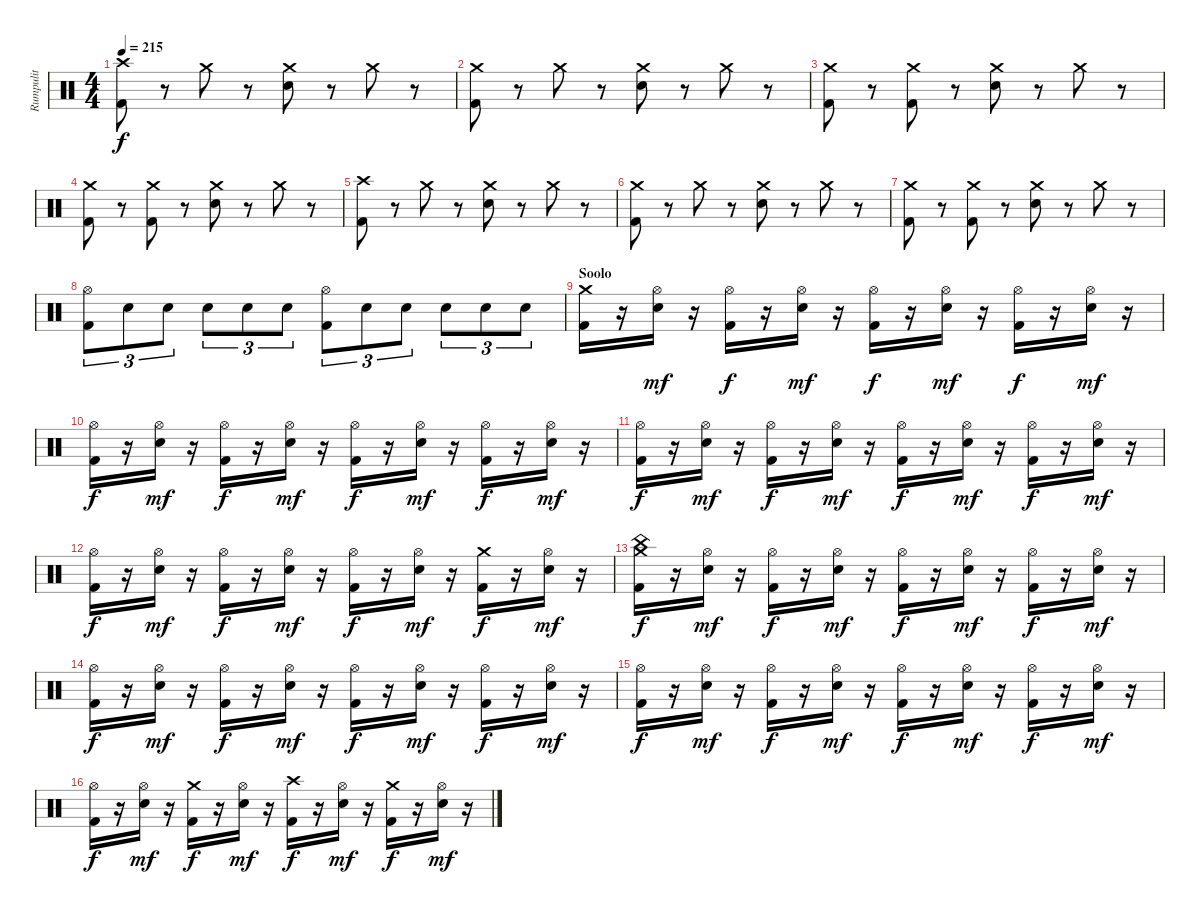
\track ("Rumpulit" "Rumpulit") {instrument percussion}
\staff {score}
\articulation defaults
\ts (4 4)
\tempo 215
\clef neutral
\ks c
("Crash high (hit)" "Kick (hit) 2").8{dy f} r.8 "Crash medium (hit)".8 r.8 ("Crash medium (hit)" "Electric Snare (hit)").8 r.8 "Crash medium (hit)".8 r.8 |
("Crash medium (hit)" "Kick (hit) 2").8 r.8 "Crash medium (hit)".8 r.8 ("Crash medium (hit)" "Electric Snare (hit)").8 r.8 "Crash medium (hit)".8 r.8 |
("Crash medium (hit)" "Kick (hit) 2").8 r.8 ("Crash medium (hit)" "Kick (hit) 2").8 r.8 ("Crash medium (hit)" "Electric Snare (hit)").8 r.8 "Crash medium (hit)".8 r.8 |
("Crash medium (hit)" "Kick (hit) 2").8 r.8 ("Crash medium (hit)" "Kick (hit) 2").8 r.8 ("Crash medium (hit)" "Electric Snare (hit)").8 r.8 "Crash medium (hit)".8 r.8 |
("Crash high (hit)" "Kick (hit) 2").8 r.8 "Crash medium (hit)".8 r.8 ("Crash medium (hit)" "Electric Snare (hit)").8 r.8 "Crash medium (hit)".8 r.8 |
("Crash medium (hit)" "Kick (hit) 2").8 r.8 "Crash medium (hit)".8 r.8 ("Crash medium (hit)" "Electric Snare (hit)").8 r.8 "Crash medium (hit)".8 r.8 |
("Crash medium (hit)" "Kick (hit) 2").8 r.8 ("Crash medium (hit)" "Kick (hit) 2").8 r.8 ("Crash medium (hit)" "Electric Snare (hit)").8 r.8 "Crash medium (hit)".8 r.8 |
("Hi-Hat (open)" "Kick (hit) 2").8{tu (3 2)} "Electric Snare (hit)".8{tu (3 2)} "Electric Snare (hit)".8{tu (3 2)} "Electric Snare (hit)".8{tu (3 2)} "Electric Snare (hit)".8{tu (3 2)} "Electric Snare (hit)".8{tu (3 2)} ("Hi-Hat (open)" "Kick (hit) 2").8{tu (3 2)} "Electric Snare (hit)".8{tu (3 2)} "Electric Snare (hit)".8{tu (3 2)} "Electric Snare (hit)".8{tu (3 2)} "Electric Snare (hit)".8{tu (3 2)} "Electric Snare (hit)".8{tu (3 2)} |
\section ("" "Soolo")
("Crash medium (hit)" "Kick (hit) 2").16 r.16 ("Hi-Hat (open)" "Electric Snare (hit)").16{dy mf} r.16 ("Hi-Hat (open)" "Kick (hit) 2").16{dy f} r.16 ("Hi-Hat (open)" "Electric Snare (hit)").16{dy mf} r.16 ("Hi-Hat (open)" "Kick (hit) 2").16{dy f} r.16 ("Hi-Hat (open)" "Electric Snare (hit)").16{dy mf} r.16 ("Hi-Hat (open)" "Kick (hit) 2").16{dy f} r.16 ("Hi-Hat (open)" "Electric Snare (hit)").16{dy mf} r.16 |
("Hi-Hat (open)" "Kick (hit) 2").16{dy f} r.16 ("Hi-Hat (open)" "Electric Snare (hit)").16{dy mf} r.16 ("Hi-Hat (open)" "Kick (hit) 2").16{dy f} r.16 ("Hi-Hat (open)" "Electric Snare (hit)").16{dy mf} r.16 ("Hi-Hat (open)" "Kick (hit) 2").16{dy f} r.16 ("Hi-Hat (open)" "Electric Snare (hit)").16{dy mf} r.16 ("Hi-Hat (open)" "Kick (hit) 2").16{dy f} r.16 ("Hi-Hat (open)" "Electric Snare (hit)").16{dy mf} r.16 |
("Hi-Hat (open)" "Kick (hit) 2").16{dy f} r.16 ("Hi-Hat (open)" "Electric Snare (hit)").16{dy mf} r.16 ("Hi-Hat (open)" "Kick (hit) 2").16{dy f} r.16 ("Hi-Hat (open)" "Electric Snare (hit)").16{dy mf} r.16 ("Hi-Hat (open)" "Kick (hit) 2").16{dy f} r.16 ("Hi-Hat (open)" "Electric Snare (hit)").16{dy mf} r.16 ("Hi-Hat (open)" "Kick (hit) 2").16{dy f} r.16 ("Hi-Hat (open)" "Electric Snare (hit)").16{dy mf} r.16 |
("Hi-Hat (open)" "Kick (hit) 2").16{dy f} r.16 ("Hi-Hat (open)" "Electric Snare (hit)").16{dy mf} r.16 ("Hi-Hat (open)" "Kick (hit) 2").16{dy f} r.16 ("Hi-Hat (open)" "Electric Snare (hit)").16{dy mf} r.16 ("Hi-Hat (open)" "Kick (hit) 2").16{dy f} r.16 ("Hi-Hat (open)" "Electric Snare (hit)").16{dy mf} r.16 ("Crash medium (hit)" "Kick (hit) 2").16{dy f} r.16 ("Hi-Hat (open)" "Electric Snare (hit)").16{dy mf} r.16 |
("Crash medium (hit)" "Kick (hit) 2" "China (hit)").16{dy f} r.16 ("Hi-Hat (open)" "Electric Snare (hit)").16{dy mf} r.16 ("Hi-Hat (open)" "Kick (hit) 2").16{dy f} r.16 ("Hi-Hat (open)" "Electric Snare (hit)").16{dy mf} r.16 ("Hi-Hat (open)" "Kick (hit) 2").16{dy f} r.16 ("Hi-Hat (open)" "Electric Snare (hit)").16{dy mf} r.16 ("Hi-Hat (open)" "Kick (hit) 2").16{dy f} r.16 ("Hi-Hat (open)" "Electric Snare (hit)").16{dy mf} r.16 |
("Hi-Hat (open)" "Kick (hit) 2").16{dy f} r.16 ("Hi-Hat (open)" "Electric Snare (hit)").16{dy mf} r.16 ("Hi-Hat (open)" "Kick (hit) 2").16{dy f} r.16 ("Hi-Hat (open)" "Electric Snare (hit)").16{dy mf} r.16 ("Hi-Hat (open)" "Kick (hit) 2").16{dy f} r.16 ("Hi-Hat (open)" "Electric Snare (hit)").16{dy mf} r.16 ("Hi-Hat (open)" "Kick (hit) 2").16{dy f} r.16 ("Hi-Hat (open)" "Electric Snare (hit)").16{dy mf} r.16 |
("Hi-Hat (open)" "Kick (hit) 2").16{dy f} r.16 ("Hi-Hat (open)" "Electric Snare (hit)").16{dy mf} r.16 ("Hi-Hat (open)" "Kick (hit) 2").16{dy f} r.16 ("Hi-Hat (open)" "Electric Snare (hit)").16{dy mf} r.16 ("Hi-Hat (open)" "Kick (hit) 2").16{dy f} r.16 ("Hi-Hat (open)" "Electric Snare (hit)").16{dy mf} r.16 ("Hi-Hat (open)" "Kick (hit) 2").16{dy f} r.16 ("Hi-Hat (open)" "Electric Snare (hit)").16{dy mf} r.16 |
("Hi-Hat (open)" "Kick (hit) 2").16{dy f} r.16 ("Hi-Hat (open)" "Electric Snare (hit)").16{dy mf} r.16 ("Crash medium (hit)" "Kick (hit) 2").16{dy f} r.16 ("Hi-Hat (open)" "Electric Snare (hit)").16{dy mf} r.16 ("Crash high (hit)" "Kick (hit) 2").16{dy f} r.16 ("Hi-Hat (open)" "Electric Snare (hit)").16{dy mf} r.16 ("Crash medium (hit)" "Kick (hit) 2").16{dy f} r.16 ("Hi-Hat (open)" "Electric Snare (hit)").16{dy mf} r.16
